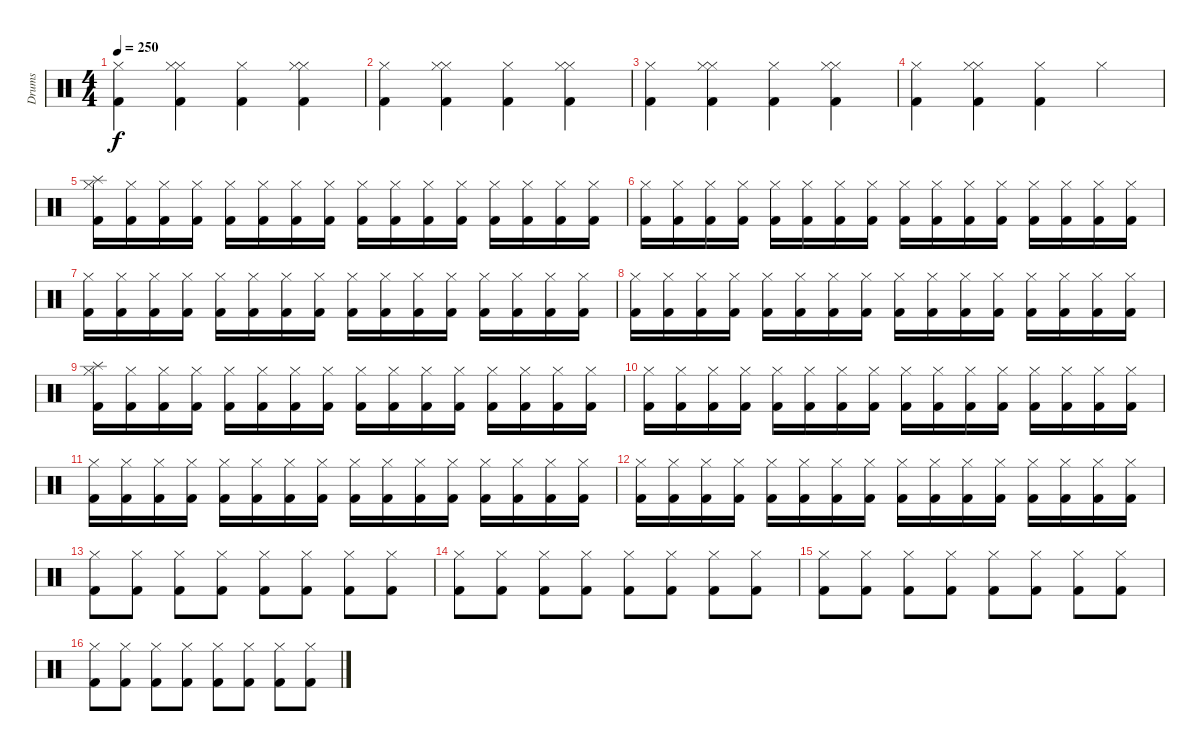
\track ("Drums" "Drums") {instrument percussion}
\staff {score}
\articulation defaults
\ts (4 4)
\tempo 250
\clef neutral
\ks c
("Kick (hit) 2" "Hi-Hat (closed)").4{dy f} ("Hi-Hat (closed)" "Kick (hit) 2" "Hi-Hat (closed)").4 ("Kick (hit) 2" "Hi-Hat (closed)").4 ("Hi-Hat (closed)" "Kick (hit) 2" "Hi-Hat (closed)").4 |
("Kick (hit) 2" "Hi-Hat (closed)").4 ("Hi-Hat (closed)" "Kick (hit) 2" "Hi-Hat (closed)").4 ("Kick (hit) 2" "Hi-Hat (closed)").4 ("Hi-Hat (closed)" "Kick (hit) 2" "Hi-Hat (closed)").4 |
("Kick (hit) 2" "Hi-Hat (closed)").4 ("Hi-Hat (closed)" "Kick (hit) 2" "Hi-Hat (closed)").4 ("Kick (hit) 2" "Hi-Hat (closed)").4 ("Hi-Hat (closed)" "Kick (hit) 2" "Hi-Hat (closed)").4 |
("Kick (hit) 2" "Hi-Hat (closed)").4 ("Hi-Hat (closed)" "Kick (hit) 2" "Hi-Hat (closed)").4 ("Kick (hit) 2" "Hi-Hat (closed)").4 "Hi-Hat (closed)".4 |
("Splash (hit)" "Kick (hit) 2" "Hi-Hat (closed)").16 ("Kick (hit) 2" "Hi-Hat (closed)").16 ("Kick (hit) 2" "Hi-Hat (closed)").16 ("Kick (hit) 2" "Hi-Hat (closed)").16 ("Kick (hit) 2" "Hi-Hat (closed)").16 ("Kick (hit) 2" "Hi-Hat (closed)").16 ("Kick (hit) 2" "Hi-Hat (closed)").16 ("Kick (hit) 2" "Hi-Hat (closed)").16 ("Kick (hit) 2" "Hi-Hat (closed)").16 ("Kick (hit) 2" "Hi-Hat (closed)").16 ("Kick (hit) 2" "Hi-Hat (closed)").16 ("Kick (hit) 2" "Hi-Hat (closed)").16 ("Kick (hit) 2" "Hi-Hat (closed)").16 ("Kick (hit) 2" "Hi-Hat (closed)").16 ("Kick (hit) 2" "Hi-Hat (closed)").16 ("Kick (hit) 2" "Hi-Hat (closed)").16 |
("Kick (hit) 2" "Hi-Hat (closed)").16 ("Kick (hit) 2" "Hi-Hat (closed)").16 ("Kick (hit) 2" "Hi-Hat (closed)").16 ("Kick (hit) 2" "Hi-Hat (closed)").16 ("Kick (hit) 2" "Hi-Hat (closed)").16 ("Kick (hit) 2" "Hi-Hat (closed)").16 ("Kick (hit) 2" "Hi-Hat (closed)").16 ("Kick (hit) 2" "Hi-Hat (closed)").16 ("Kick (hit) 2" "Hi-Hat (closed)").16 ("Kick (hit) 2" "Hi-Hat (closed)").16 ("Kick (hit) 2" "Hi-Hat (closed)").16 ("Kick (hit) 2" "Hi-Hat (closed)").16 ("Kick (hit) 2" "Hi-Hat (closed)").16 ("Kick (hit) 2" "Hi-Hat (closed)").16 ("Kick (hit) 2" "Hi-Hat (closed)").16 ("Kick (hit) 2" "Hi-Hat (closed)").16 |
("Kick (hit) 2" "Hi-Hat (closed)").16 ("Kick (hit) 2" "Hi-Hat (closed)").16 ("Kick (hit) 2" "Hi-Hat (closed)").16 ("Kick (hit) 2" "Hi-Hat (closed)").16 ("Kick (hit) 2" "Hi-Hat (closed)").16 ("Kick (hit) 2" "Hi-Hat (closed)").16 ("Kick (hit) 2" "Hi-Hat (closed)").16 ("Kick (hit) 2" "Hi-Hat (closed)").16 ("Kick (hit) 2" "Hi-Hat (closed)").16 ("Kick (hit) 2" "Hi-Hat (closed)").16 ("Kick (hit) 2" "Hi-Hat (closed)").16 ("Kick (hit) 2" "Hi-Hat (closed)").16 ("Kick (hit) 2" "Hi-Hat (closed)").16 ("Kick (hit) 2" "Hi-Hat (closed)").16 ("Kick (hit) 2" "Hi-Hat (closed)").16 ("Kick (hit) 2" "Hi-Hat (closed)").16 |
("Kick (hit) 2" "Hi-Hat (closed)").16 ("Kick (hit) 2" "Hi-Hat (closed)").16 ("Kick (hit) 2" "Hi-Hat (closed)").16 ("Kick (hit) 2" "Hi-Hat (closed)").16 ("Kick (hit) 2" "Hi-Hat (closed)").16 ("Kick (hit) 2" "Hi-Hat (closed)").16 ("Kick (hit) 2" "Hi-Hat (closed)").16 ("Kick (hit) 2" "Hi-Hat (closed)").16 ("Kick (hit) 2" "Hi-Hat (closed)").16 ("Kick (hit) 2" "Hi-Hat (closed)").16 ("Kick (hit) 2" "Hi-Hat (closed)").16 ("Kick (hit) 2" "Hi-Hat (closed)").16 ("Kick (hit) 2" "Hi-Hat (closed)").16 ("Kick (hit) 2" "Hi-Hat (closed)").16 ("Kick (hit) 2" "Hi-Hat (closed)").16 ("Kick (hit) 2" "Hi-Hat (closed)").16 |
("Splash (hit)" "Kick (hit) 2" "Hi-Hat (closed)").16 ("Kick (hit) 2" "Hi-Hat (closed)").16 ("Kick (hit) 2" "Hi-Hat (closed)").16 ("Kick (hit) 2" "Hi-Hat (closed)").16 ("Kick (hit) 2" "Hi-Hat (closed)").16 ("Kick (hit) 2" "Hi-Hat (closed)").16 ("Kick (hit) 2" "Hi-Hat (closed)").16 ("Kick (hit) 2" "Hi-Hat (closed)").16 ("Kick (hit) 2" "Hi-Hat (closed)").16 ("Kick (hit) 2" "Hi-Hat (closed)").16 ("Kick (hit) 2" "Hi-Hat (closed)").16 ("Kick (hit) 2" "Hi-Hat (closed)").16 ("Kick (hit) 2" "Hi-Hat (closed)").16 ("Kick (hit) 2" "Hi-Hat (closed)").16 ("Kick (hit) 2" "Hi-Hat (closed)").16 ("Kick (hit) 2" "Hi-Hat (closed)").16 |
("Kick (hit) 2" "Hi-Hat (closed)").16 ("Kick (hit) 2" "Hi-Hat (closed)").16 ("Kick (hit) 2" "Hi-Hat (closed)").16 ("Kick (hit) 2" "Hi-Hat (closed)").16 ("Kick (hit) 2" "Hi-Hat (closed)").16 ("Kick (hit) 2" "Hi-Hat (closed)").16 ("Kick (hit) 2" "Hi-Hat (closed)").16 ("Kick (hit) 2" "Hi-Hat (closed)").16 ("Kick (hit) 2" "Hi-Hat (closed)").16 ("Kick (hit) 2" "Hi-Hat (closed)").16 ("Kick (hit) 2" "Hi-Hat (closed)").16 ("Kick (hit) 2" "Hi-Hat (closed)").16 ("Kick (hit) 2" "Hi-Hat (closed)").16 ("Kick (hit) 2" "Hi-Hat (closed)").16 ("Kick (hit) 2" "Hi-Hat (closed)").16 ("Kick (hit) 2" "Hi-Hat (closed)").16 |
("Kick (hit) 2" "Hi-Hat (closed)").16 ("Kick (hit) 2" "Hi-Hat (closed)").16 ("Kick (hit) 2" "Hi-Hat (closed)").16 ("Kick (hit) 2" "Hi-Hat (closed)").16 ("Kick (hit) 2" "Hi-Hat (closed)").16 ("Kick (hit) 2" "Hi-Hat (closed)").16 ("Kick (hit) 2" "Hi-Hat (closed)").16 ("Kick (hit) 2" "Hi-Hat (closed)").16 ("Kick (hit) 2" "Hi-Hat (closed)").16 ("Kick (hit) 2" "Hi-Hat (closed)").16 ("Kick (hit) 2" "Hi-Hat (closed)").16 ("Kick (hit) 2" "Hi-Hat (closed)").16 ("Kick (hit) 2" "Hi-Hat (closed)").16 ("Kick (hit) 2" "Hi-Hat (closed)").16 ("Kick (hit) 2" "Hi-Hat (closed)").16 ("Kick (hit) 2" "Hi-Hat (closed)").16 |
("Kick (hit) 2" "Hi-Hat (closed)").16 ("Kick (hit) 2" "Hi-Hat (closed)").16 ("Kick (hit) 2" "Hi-Hat (closed)").16 ("Kick (hit) 2" "Hi-Hat (closed)").16 ("Kick (hit) 2" "Hi-Hat (closed)").16 ("Kick (hit) 2" "Hi-Hat (closed)").16 ("Kick (hit) 2" "Hi-Hat (closed)").16 ("Kick (hit) 2" "Hi-Hat (closed)").16 ("Kick (hit) 2" "Hi-Hat (closed)").16 ("Kick (hit) 2" "Hi-Hat (closed)").16 ("Kick (hit) 2" "Hi-Hat (closed)").16 ("Kick (hit) 2" "Hi-Hat (closed)").16 ("Kick (hit) 2" "Hi-Hat (closed)").16 ("Kick (hit) 2" "Hi-Hat (closed)").16 ("Kick (hit) 2" "Hi-Hat (closed)").16 ("Kick (hit) 2" "Hi-Hat (closed)").16 |
("Kick (hit) 2" "Hi-Hat (closed)").8 ("Kick (hit) 2" "Hi-Hat (closed)").8 ("Kick (hit) 2" "Hi-Hat (closed)").8 ("Kick (hit) 2" "Hi-Hat (closed)").8 ("Kick (hit) 2" "Hi-Hat (closed)").8 ("Kick (hit) 2" "Hi-Hat (closed)").8 ("Kick (hit) 2" "Hi-Hat (closed)").8 ("Kick (hit) 2" "Hi-Hat (closed)").8 |
("Kick (hit) 2" "Hi-Hat (closed)").8 ("Kick (hit) 2" "Hi-Hat (closed)").8 ("Kick (hit) 2" "Hi-Hat (closed)").8 ("Kick (hit) 2" "Hi-Hat (closed)").8 ("Kick (hit) 2" "Hi-Hat (closed)").8 ("Kick (hit) 2" "Hi-Hat (closed)").8 ("Kick (hit) 2" "Hi-Hat (closed)").8 ("Kick (hit) 2" "Hi-Hat (closed)").8 |
("Kick (hit) 2" "Hi-Hat (closed)").8 ("Kick (hit) 2" "Hi-Hat (closed)").8 ("Kick (hit) 2" "Hi-Hat (closed)").8 ("Kick (hit) 2" "Hi-Hat (closed)").8 ("Kick (hit) 2" "Hi-Hat (closed)").8 ("Kick (hit) 2" "Hi-Hat (closed)").8 ("Kick (hit) 2" "Hi-Hat (closed)").8 ("Kick (hit) 2" "Hi-Hat (closed)").8 |
("Kick (hit) 2" "Hi-Hat (closed)").8 ("Kick (hit) 2" "Hi-Hat (closed)").8 ("Kick (hit) 2" "Hi-Hat (closed)").8 ("Kick (hit) 2" "Hi-Hat (closed)").8 ("Kick (hit) 2" "Hi-Hat (closed)").8 ("Kick (hit) 2" "Hi-Hat (closed)").8 ("Kick (hit) 2" "Hi-Hat (closed)").8 ("Kick (hit) 2" "Hi-Hat (closed)").8
